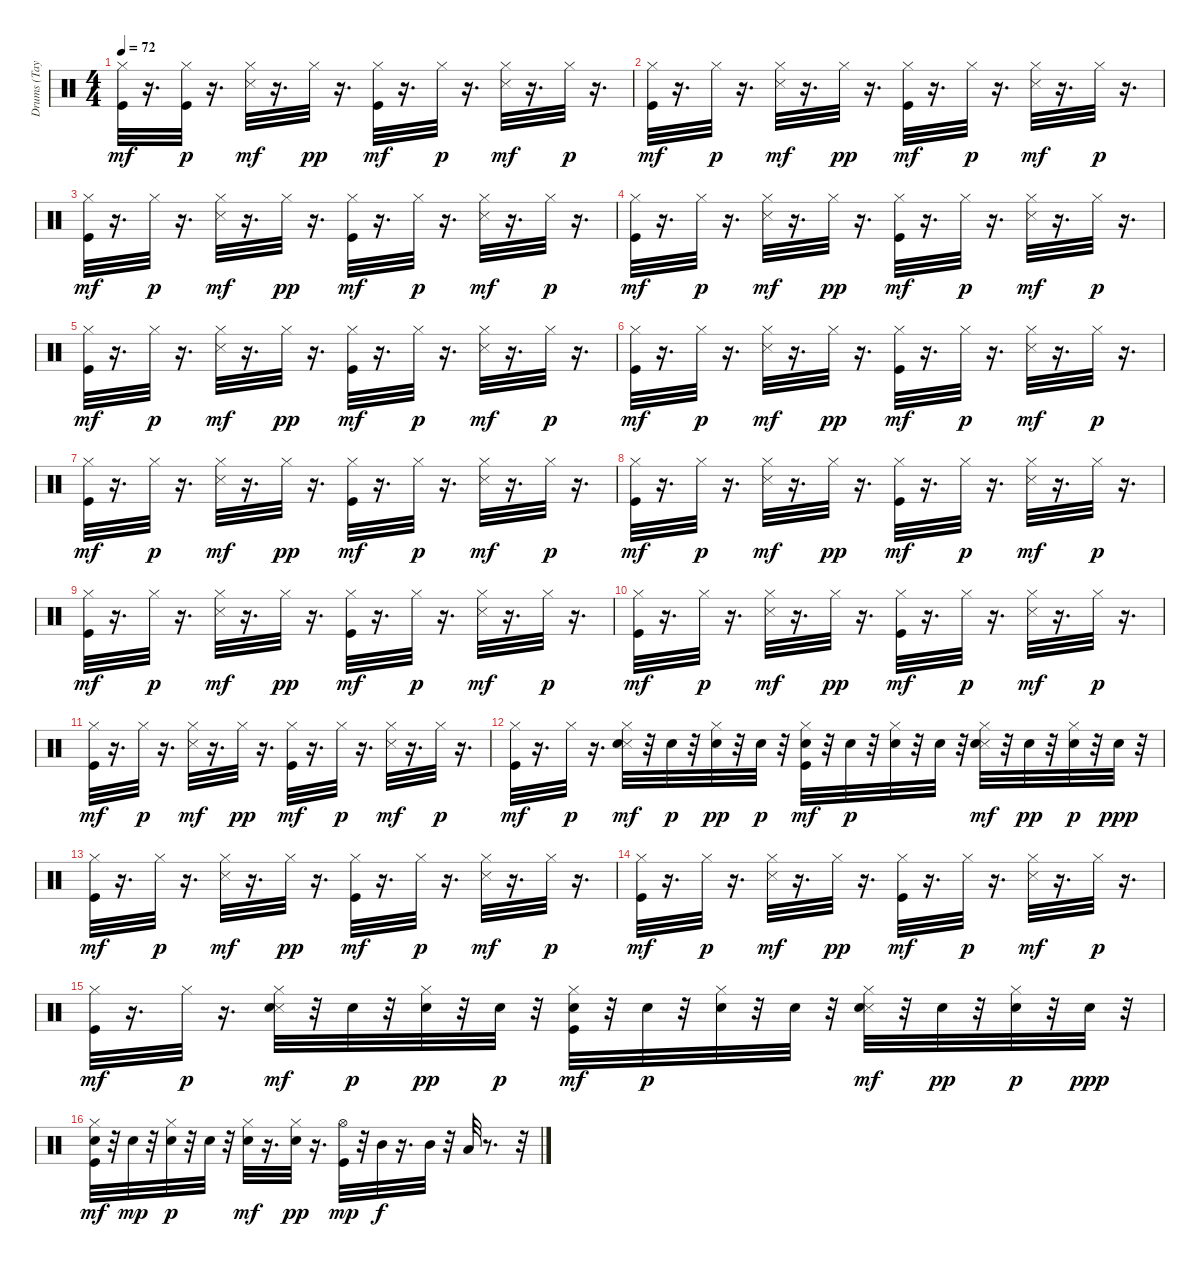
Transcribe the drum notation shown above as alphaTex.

\track ("Drums (Taylor)" "Drums (Tay") {instrument percussion}
\staff {score}
\articulation defaults
\ts (4 4)
\tempo 72
\clef neutral
\ks c
("Kick (hit)" "Hi-Hat (closed)").32{dy mf} r.16{d} ("Kick (hit)" "Hi-Hat (closed)").32{dy p} r.16{d} ("Snare (side stick) 3" "Hi-Hat (closed)").32{dy mf} r.16{d} "Hi-Hat (closed)".32{dy pp} r.16{d} ("Kick (hit)" "Hi-Hat (closed)").32{dy mf} r.16{d} "Hi-Hat (closed)".32{dy p} r.16{d} ("Snare (side stick) 3" "Hi-Hat (closed)").32{dy mf} r.16{d} "Hi-Hat (closed)".32{dy p} r.16{d} |
("Kick (hit)" "Hi-Hat (closed)").32{dy mf} r.16{d} "Hi-Hat (closed)".32{dy p} r.16{d} ("Snare (side stick) 3" "Hi-Hat (closed)").32{dy mf} r.16{d} "Hi-Hat (closed)".32{dy pp} r.16{d} ("Kick (hit)" "Hi-Hat (closed)").32{dy mf} r.16{d} "Hi-Hat (closed)".32{dy p} r.16{d} ("Snare (side stick) 3" "Hi-Hat (closed)").32{dy mf} r.16{d} "Hi-Hat (closed)".32{dy p} r.16{d} |
("Kick (hit)" "Hi-Hat (closed)").32{dy mf} r.16{d} "Hi-Hat (closed)".32{dy p} r.16{d} ("Snare (side stick) 3" "Hi-Hat (closed)").32{dy mf} r.16{d} "Hi-Hat (closed)".32{dy pp} r.16{d} ("Kick (hit)" "Hi-Hat (closed)").32{dy mf} r.16{d} "Hi-Hat (closed)".32{dy p} r.16{d} ("Snare (side stick) 3" "Hi-Hat (closed)").32{dy mf} r.16{d} "Hi-Hat (closed)".32{dy p} r.16{d} |
("Kick (hit)" "Hi-Hat (closed)").32{dy mf} r.16{d} "Hi-Hat (closed)".32{dy p} r.16{d} ("Snare (side stick) 3" "Hi-Hat (closed)").32{dy mf} r.16{d} "Hi-Hat (closed)".32{dy pp} r.16{d} ("Kick (hit)" "Hi-Hat (closed)").32{dy mf} r.16{d} "Hi-Hat (closed)".32{dy p} r.16{d} ("Snare (side stick) 3" "Hi-Hat (closed)").32{dy mf} r.16{d} "Hi-Hat (closed)".32{dy p} r.16{d} |
("Kick (hit)" "Hi-Hat (closed)").32{dy mf} r.16{d} "Hi-Hat (closed)".32{dy p} r.16{d} ("Snare (side stick) 3" "Hi-Hat (closed)").32{dy mf} r.16{d} "Hi-Hat (closed)".32{dy pp} r.16{d} ("Kick (hit)" "Hi-Hat (closed)").32{dy mf} r.16{d} "Hi-Hat (closed)".32{dy p} r.16{d} ("Snare (side stick) 3" "Hi-Hat (closed)").32{dy mf} r.16{d} "Hi-Hat (closed)".32{dy p} r.16{d} |
("Kick (hit)" "Hi-Hat (closed)").32{dy mf} r.16{d} "Hi-Hat (closed)".32{dy p} r.16{d} ("Snare (side stick) 3" "Hi-Hat (closed)").32{dy mf} r.16{d} "Hi-Hat (closed)".32{dy pp} r.16{d} ("Kick (hit)" "Hi-Hat (closed)").32{dy mf} r.16{d} "Hi-Hat (closed)".32{dy p} r.16{d} ("Snare (side stick) 3" "Hi-Hat (closed)").32{dy mf} r.16{d} "Hi-Hat (closed)".32{dy p} r.16{d} |
("Kick (hit)" "Hi-Hat (closed)").32{dy mf} r.16{d} "Hi-Hat (closed)".32{dy p} r.16{d} ("Snare (side stick) 3" "Hi-Hat (closed)").32{dy mf} r.16{d} "Hi-Hat (closed)".32{dy pp} r.16{d} ("Kick (hit)" "Hi-Hat (closed)").32{dy mf} r.16{d} "Hi-Hat (closed)".32{dy p} r.16{d} ("Snare (side stick) 3" "Hi-Hat (closed)").32{dy mf} r.16{d} "Hi-Hat (closed)".32{dy p} r.16{d} |
("Kick (hit)" "Hi-Hat (closed)").32{dy mf} r.16{d} "Hi-Hat (closed)".32{dy p} r.16{d} ("Snare (side stick) 3" "Hi-Hat (closed)").32{dy mf} r.16{d} "Hi-Hat (closed)".32{dy pp} r.16{d} ("Kick (hit)" "Hi-Hat (closed)").32{dy mf} r.16{d} "Hi-Hat (closed)".32{dy p} r.16{d} ("Snare (side stick) 3" "Hi-Hat (closed)").32{dy mf} r.16{d} "Hi-Hat (closed)".32{dy p} r.16{d} |
("Kick (hit)" "Hi-Hat (closed)").32{dy mf} r.16{d} "Hi-Hat (closed)".32{dy p} r.16{d} ("Snare (side stick) 3" "Hi-Hat (closed)").32{dy mf} r.16{d} "Hi-Hat (closed)".32{dy pp} r.16{d} ("Kick (hit)" "Hi-Hat (closed)").32{dy mf} r.16{d} "Hi-Hat (closed)".32{dy p} r.16{d} ("Snare (side stick) 3" "Hi-Hat (closed)").32{dy mf} r.16{d} "Hi-Hat (closed)".32{dy p} r.16{d} |
("Kick (hit)" "Hi-Hat (closed)").32{dy mf} r.16{d} "Hi-Hat (closed)".32{dy p} r.16{d} ("Snare (side stick) 3" "Hi-Hat (closed)").32{dy mf} r.16{d} "Hi-Hat (closed)".32{dy pp} r.16{d} ("Kick (hit)" "Hi-Hat (closed)").32{dy mf} r.16{d} "Hi-Hat (closed)".32{dy p} r.16{d} ("Snare (side stick) 3" "Hi-Hat (closed)").32{dy mf} r.16{d} "Hi-Hat (closed)".32{dy p} r.16{d} |
("Kick (hit)" "Hi-Hat (closed)").32{dy mf} r.16{d} "Hi-Hat (closed)".32{dy p} r.16{d} ("Snare (side stick) 3" "Hi-Hat (closed)").32{dy mf} r.16{d} "Hi-Hat (closed)".32{dy pp} r.16{d} ("Kick (hit)" "Hi-Hat (closed)").32{dy mf} r.16{d} "Hi-Hat (closed)".32{dy p} r.16{d} ("Snare (side stick) 3" "Hi-Hat (closed)").32{dy mf} r.16{d} "Hi-Hat (closed)".32{dy p} r.16{d} |
("Kick (hit)" "Hi-Hat (closed)").32{dy mf} r.16{d} "Hi-Hat (closed)".32{dy p} r.16{d} ("Snare (side stick) 3" "Electric Snare (hit)" "Hi-Hat (closed)").32{dy mf} r.32 "Electric Snare (hit)".32{dy p} r.32 ("Electric Snare (hit)" "Hi-Hat (closed)").32{dy pp} r.32 "Electric Snare (hit)".32{dy p} r.32 ("Kick (hit)" "Electric Snare (hit)" "Hi-Hat (closed)").32{dy mf} r.32 "Electric Snare (hit)".32{dy p} r.32 ("Electric Snare (hit)" "Hi-Hat (closed)").32 r.32 "Electric Snare (hit)".32 r.32 ("Snare (side stick) 3" "Electric Snare (hit)" "Hi-Hat (closed)").32{dy mf} r.32 "Electric Snare (hit)".32{dy pp} r.32 ("Electric Snare (hit)" "Hi-Hat (closed)").32{dy p} r.32 "Electric Snare (hit)".32{dy ppp} r.32 |
("Kick (hit)" "Hi-Hat (closed)").32{dy mf} r.16{d} "Hi-Hat (closed)".32{dy p} r.16{d} ("Snare (side stick) 3" "Hi-Hat (closed)").32{dy mf} r.16{d} "Hi-Hat (closed)".32{dy pp} r.16{d} ("Kick (hit)" "Hi-Hat (closed)").32{dy mf} r.16{d} "Hi-Hat (closed)".32{dy p} r.16{d} ("Snare (side stick) 3" "Hi-Hat (closed)").32{dy mf} r.16{d} "Hi-Hat (closed)".32{dy p} r.16{d} |
("Kick (hit)" "Hi-Hat (closed)").32{dy mf} r.16{d} "Hi-Hat (closed)".32{dy p} r.16{d} ("Snare (side stick) 3" "Hi-Hat (closed)").32{dy mf} r.16{d} "Hi-Hat (closed)".32{dy pp} r.16{d} ("Kick (hit)" "Hi-Hat (closed)").32{dy mf} r.16{d} "Hi-Hat (closed)".32{dy p} r.16{d} ("Snare (side stick) 3" "Hi-Hat (closed)").32{dy mf} r.16{d} "Hi-Hat (closed)".32{dy p} r.16{d} |
("Kick (hit)" "Hi-Hat (closed)").32{dy mf} r.16{d} "Hi-Hat (closed)".32{dy p} r.16{d} ("Snare (side stick) 3" "Electric Snare (hit)" "Hi-Hat (closed)").32{dy mf} r.32 "Electric Snare (hit)".32{dy p} r.32 ("Electric Snare (hit)" "Hi-Hat (closed)").32{dy pp} r.32 "Electric Snare (hit)".32{dy p} r.32 ("Kick (hit)" "Electric Snare (hit)" "Hi-Hat (closed)").32{dy mf} r.32 "Electric Snare (hit)".32{dy p} r.32 ("Electric Snare (hit)" "Hi-Hat (closed)").32 r.32 "Electric Snare (hit)".32 r.32 ("Snare (side stick) 3" "Electric Snare (hit)" "Hi-Hat (closed)").32{dy mf} r.32 "Electric Snare (hit)".32{dy pp} r.32 ("Electric Snare (hit)" "Hi-Hat (closed)").32{dy p} r.32 "Electric Snare (hit)".32{dy ppp} r.32 |
("Kick (hit)" "Electric Snare (hit)" "Hi-Hat (closed)").32{dy mf} r.32 "Electric Snare (hit)".32{dy mp} r.32 ("Electric Snare (hit)" "Hi-Hat (closed)").32{dy p} r.32 "Electric Snare (hit)".32 r.32 ("Electric Snare (hit)" "Hi-Hat (closed)").32{dy mf} r.16{d} ("Electric Snare (hit)" "Hi-Hat (closed)").32{dy pp} r.16{d} ("Kick (hit)" "Hi-Hat (open)").32{dy mp} r.32 "Mid Tom (hit)".32{dy f} r.16{d} "Mid Tom (hit)".32 r.32 "Low Tom (hit)".32 r.8{d} r.32
